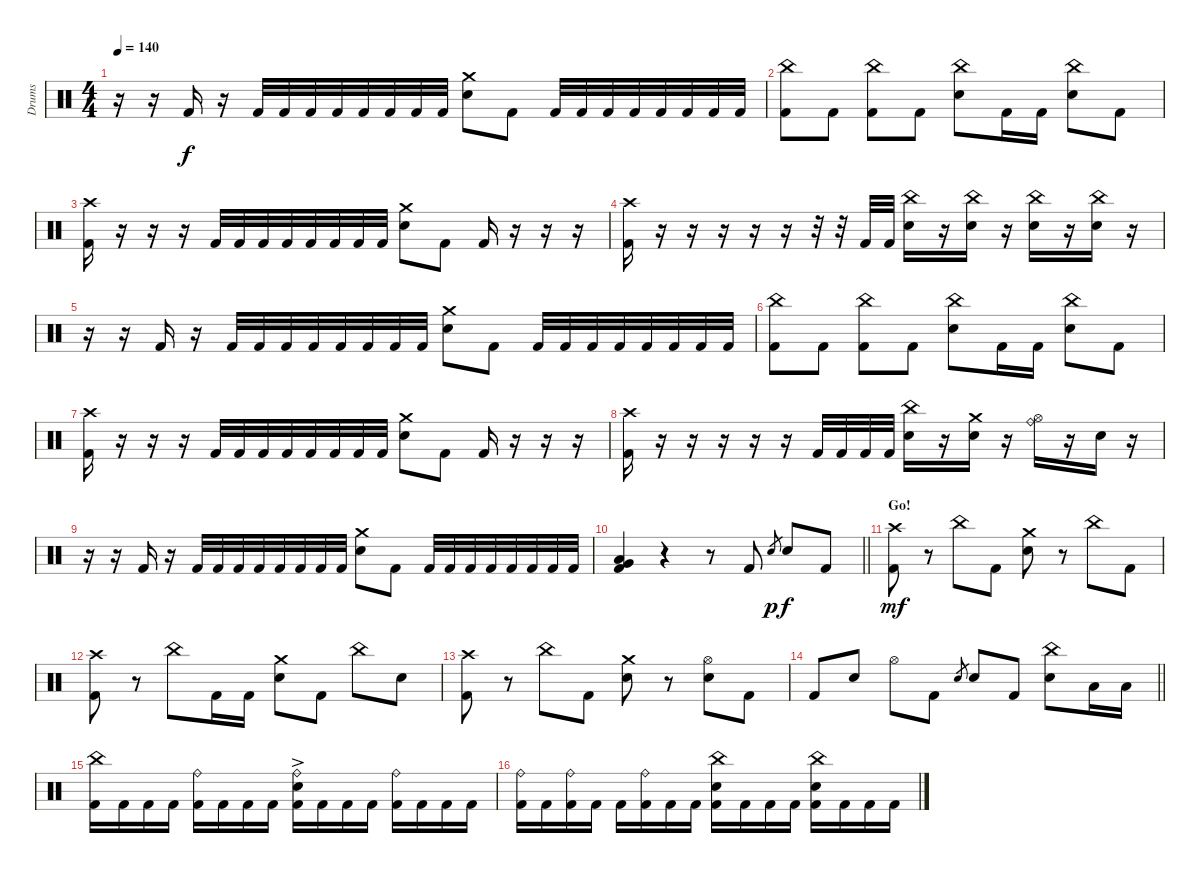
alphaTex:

\track ("Drums" "Drums") {instrument percussion}
\staff {score}
\articulation defaults
\ts (4 4)
\tempo 140
\clef neutral
\ks c
r.16{dy f} r.16 "Kick (hit) 2".16 r.16 "Kick (hit) 2".32 "Kick (hit) 2".32 "Kick (hit) 2".32 "Kick (hit) 2".32 "Kick (hit) 2".32 "Kick (hit) 2".32 "Kick (hit) 2".32 "Kick (hit) 2".32 ("Electric Snare (hit)" "Crash medium (hit)").8 "Kick (hit) 2".8 "Kick (hit) 2".32 "Kick (hit) 2".32 "Kick (hit) 2".32 "Kick (hit) 2".32 "Kick (hit) 2".32 "Kick (hit) 2".32 "Kick (hit) 2".32 "Kick (hit) 2".32 |
("Kick (hit) 2" "China (hit)").8 "Kick (hit) 2".8 ("Kick (hit) 2" "China (hit)").8 "Kick (hit) 2".8 ("Electric Snare (hit)" "China (hit)").8 "Kick (hit) 2".16 "Kick (hit) 2".16 ("Electric Snare (hit)" "China (hit)").8 "Kick (hit) 2".8 |
("Kick (hit) 2" "Crash high (hit)").16 r.16 r.16 r.16 "Kick (hit) 2".32 "Kick (hit) 2".32 "Kick (hit) 2".32 "Kick (hit) 2".32 "Kick (hit) 2".32 "Kick (hit) 2".32 "Kick (hit) 2".32 "Kick (hit) 2".32 ("Electric Snare (hit)" "Crash medium (hit)").8 "Kick (hit) 2".8 "Kick (hit) 2".16 r.16 r.16 r.16 |
("Kick (hit) 2" "Crash high (hit)").16 r.16 r.16 r.16 r.16 r.16 r.32 r.32 "Kick (hit) 2".32 "Kick (hit) 2".32 ("Electric Snare (hit)" "China (hit)").16 r.16 ("Electric Snare (hit)" "China (hit)").16 r.16 ("Electric Snare (hit)" "China (hit)").16 r.16 ("Electric Snare (hit)" "China (hit)").16 r.16 |
r.16 r.16 "Kick (hit) 2".16 r.16 "Kick (hit) 2".32 "Kick (hit) 2".32 "Kick (hit) 2".32 "Kick (hit) 2".32 "Kick (hit) 2".32 "Kick (hit) 2".32 "Kick (hit) 2".32 "Kick (hit) 2".32 ("Electric Snare (hit)" "Crash medium (hit)").8 "Kick (hit) 2".8 "Kick (hit) 2".32 "Kick (hit) 2".32 "Kick (hit) 2".32 "Kick (hit) 2".32 "Kick (hit) 2".32 "Kick (hit) 2".32 "Kick (hit) 2".32 "Kick (hit) 2".32 |
("Kick (hit) 2" "China (hit)").8 "Kick (hit) 2".8 ("Kick (hit) 2" "China (hit)").8 "Kick (hit) 2".8 ("Electric Snare (hit)" "China (hit)").8 "Kick (hit) 2".16 "Kick (hit) 2".16 ("Electric Snare (hit)" "China (hit)").8 "Kick (hit) 2".8 |
("Kick (hit) 2" "Crash high (hit)").16 r.16 r.16 r.16 "Kick (hit) 2".32 "Kick (hit) 2".32 "Kick (hit) 2".32 "Kick (hit) 2".32 "Kick (hit) 2".32 "Kick (hit) 2".32 "Kick (hit) 2".32 "Kick (hit) 2".32 ("Electric Snare (hit)" "Crash medium (hit)").8 "Kick (hit) 2".8 "Kick (hit) 2".16 r.16 r.16 r.16 |
("Kick (hit) 2" "Crash high (hit)").16 r.16 r.16 r.16 r.16 r.16 "Kick (hit) 2".32 "Kick (hit) 2".32 "Kick (hit) 2".32 "Kick (hit) 2".32 ("Electric Snare (hit)" "China (hit)").16 r.16 ("Electric Snare (hit)" "Crash medium (hit)").16 r.16 ("Ride (bell)" "Hi-Hat (open)").16 r.16 "Electric Snare (hit)".16 r.16 |
r.16 r.16 "Kick (hit) 2".16 r.16 "Kick (hit) 2".32 "Kick (hit) 2".32 "Kick (hit) 2".32 "Kick (hit) 2".32 "Kick (hit) 2".32 "Kick (hit) 2".32 "Kick (hit) 2".32 "Kick (hit) 2".32 ("Electric Snare (hit)" "Crash medium (hit)").8 "Kick (hit) 2".8 "Kick (hit) 2".32 "Kick (hit) 2".32 "Kick (hit) 2".32 "Kick (hit) 2".32 "Kick (hit) 2".32 "Kick (hit) 2".32 "Kick (hit) 2".32 "Kick (hit) 2".32 |
\barLineRight lightlight
("Very Low Tom (hit)" "Low Floor Tom (hit)" "Kick (hit) 2").4 r.4 r.8 "Kick (hit) 2".8 "Electric Snare (hit)".8{gr dy p} "Electric Snare (hit)".8{dy f} "Kick (hit) 2".8 |
\section ("" "Go!")
("Crash high (hit)" "Kick (hit) 2").8{dy mf} r.8 "China (hit)".8 "Kick (hit) 2".8 ("Crash medium (hit)" "Electric Snare (hit)").8 r.8 "China (hit)".8 "Kick (hit) 2".8 |
("Crash high (hit)" "Kick (hit) 2").8 r.8 "China (hit)".8 "Kick (hit) 2".16 "Kick (hit) 2".16 ("Crash medium (hit)" "Electric Snare (hit)").8 "Kick (hit) 2".8 "China (hit)".8 "Electric Snare (hit)".8 |
("Crash high (hit)" "Kick (hit) 2").8 r.8 "China (hit)".8 "Kick (hit) 2".8 ("Crash medium (hit)" "Electric Snare (hit)").8 r.8 ("Hi-Hat (open)" "Electric Snare (hit)").8 "Kick (hit) 2".8 |
\barLineRight lightlight "Kick (hit) 2".8 "Electric Snare (hit)".8 "Hi-Hat (open)".8 "Kick (hit) 2".8 "Electric Snare (hit)".8{gr} "Electric Snare (hit)".8 "Kick (hit) 2".8
("China (hit)" "Electric Snare (hit)").8 "Low Tom (hit)".16 "Low Tom (hit)".16 |
\section ("" "")
("Kick (hit) 2" "China (hit)").16 "Kick (hit) 2".16 "Kick (hit) 2".16 "Kick (hit) 2".16 ("Kick (hit) 2" "Ride (bell)").16 "Kick (hit) 2".16 "Kick (hit) 2".16 "Kick (hit) 2".16 ("Kick (hit) 2" "Electric Snare (hit)"{ac} "Ride (bell)").16 "Kick (hit) 2".16 "Kick (hit) 2".16 "Kick (hit) 2".16 ("Kick (hit) 2" "Ride (bell)").16 "Kick (hit) 2".16 "Kick (hit) 2".16 "Kick (hit) 2".16 |
("Kick (hit) 2" "Ride (bell)").16 "Kick (hit) 2".16 ("Kick (hit) 2" "Ride (bell)").16 "Kick (hit) 2".16 "Kick (hit) 2".16 ("Kick (hit) 2" "Ride (bell)").16 "Kick (hit) 2".16 "Kick (hit) 2".16 ("Kick (hit) 2" "Electric Snare (hit)" "China (hit)").16 "Kick (hit) 2".16 "Kick (hit) 2".16 "Kick (hit) 2".16 ("Kick (hit) 2" "Electric Snare (hit)" "China (hit)").16 "Kick (hit) 2".16 "Kick (hit) 2".16 "Kick (hit) 2".16
